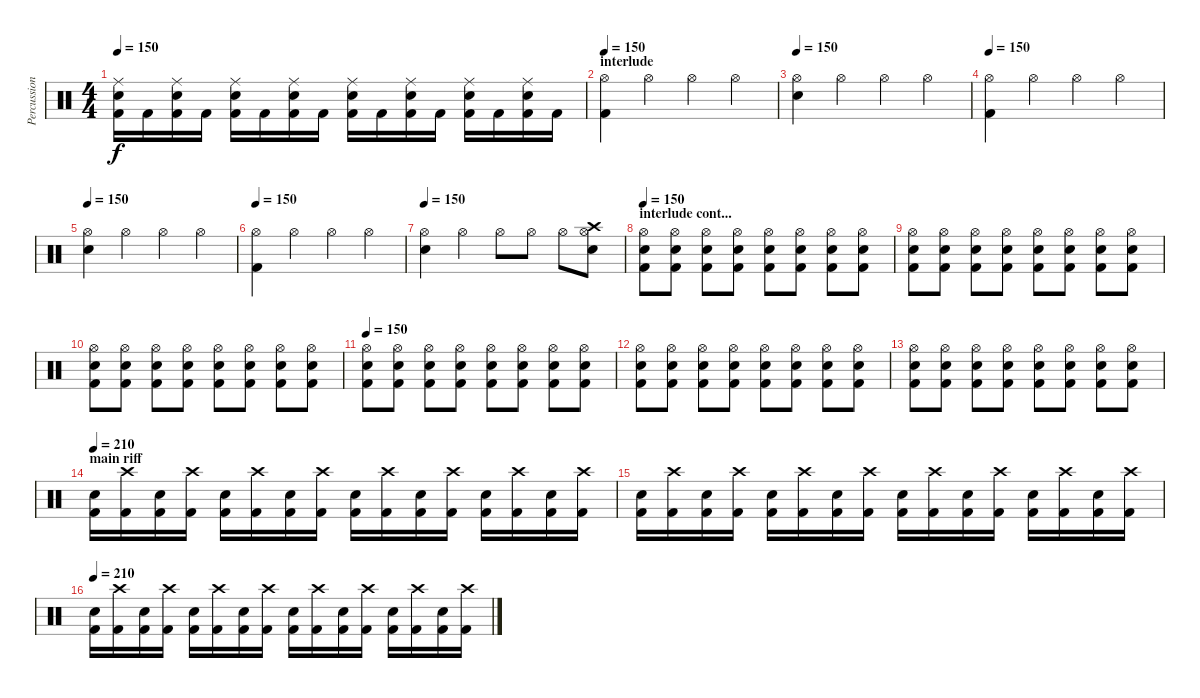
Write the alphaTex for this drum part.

\track ("Percussion" "Percussion") {instrument percussion}
\staff {score}
\articulation defaults
\ts (4 4)
\tempo 150
\clef neutral
\ks c
("Ride (middle)" "Snare (hit) 2" "Kick (hit) 2").16{dy f} "Kick (hit) 2".16 ("Ride (middle)" "Snare (hit) 2" "Kick (hit) 2").16 "Kick (hit) 2".16 ("Ride (middle)" "Snare (hit) 2" "Kick (hit) 2").16 "Kick (hit) 2".16 ("Ride (middle)" "Snare (hit) 2" "Kick (hit) 2").16 "Kick (hit) 2".16 ("Ride (middle)" "Snare (hit) 2" "Kick (hit) 2").16 "Kick (hit) 2".16 ("Ride (middle)" "Snare (hit) 2" "Kick (hit) 2").16 "Kick (hit) 2".16 ("Ride (middle)" "Snare (hit) 2" "Kick (hit) 2").16 "Kick (hit) 2".16 ("Ride (middle)" "Snare (hit) 2" "Kick (hit) 2").16 "Kick (hit) 2".16 |
\section ("" "interlude")
\tempo 150
("Hi-Hat (open)" "Kick (hit) 2").4 "Hi-Hat (open)".4 "Hi-Hat (open)".4 "Hi-Hat (open)".4 |
\tempo 150
("Hi-Hat (open)" "Snare (hit) 2").4 "Hi-Hat (open)".4 "Hi-Hat (open)".4 "Hi-Hat (open)".4 |
\tempo 150
("Hi-Hat (open)" "Kick (hit) 2").4 "Hi-Hat (open)".4 "Hi-Hat (open)".4 "Hi-Hat (open)".4 |
\tempo 150
("Hi-Hat (open)" "Snare (hit) 2").4 "Hi-Hat (open)".4 "Hi-Hat (open)".4 "Hi-Hat (open)".4 |
\tempo 150
("Hi-Hat (open)" "Kick (hit) 2").4 "Hi-Hat (open)".4 "Hi-Hat (open)".4 "Hi-Hat (open)".4 |
\tempo 150
("Hi-Hat (open)" "Snare (hit) 2").4 "Hi-Hat (open)".4 "Hi-Hat (open)".8 "Hi-Hat (open)".8 "Hi-Hat (open)".8 ("Crash high (hit)" "Hi-Hat (open)" "Snare (hit) 2").8 |
\section ("" "interlude cont...")
\tempo 150
("Hi-Hat (open)" "Snare (hit) 2" "Kick (hit) 2").8 ("Hi-Hat (open)" "Snare (hit) 2" "Kick (hit) 2").8 ("Hi-Hat (open)" "Snare (hit) 2" "Kick (hit) 2").8 ("Hi-Hat (open)" "Snare (hit) 2" "Kick (hit) 2").8 ("Hi-Hat (open)" "Snare (hit) 2" "Kick (hit) 2").8 ("Hi-Hat (open)" "Snare (hit) 2" "Kick (hit) 2").8 ("Hi-Hat (open)" "Snare (hit) 2" "Kick (hit) 2").8 ("Hi-Hat (open)" "Snare (hit) 2" "Kick (hit) 2").8 |
("Hi-Hat (open)" "Snare (hit) 2" "Kick (hit) 2").8 ("Hi-Hat (open)" "Snare (hit) 2" "Kick (hit) 2").8 ("Hi-Hat (open)" "Snare (hit) 2" "Kick (hit) 2").8 ("Hi-Hat (open)" "Snare (hit) 2" "Kick (hit) 2").8 ("Hi-Hat (open)" "Snare (hit) 2" "Kick (hit) 2").8 ("Hi-Hat (open)" "Snare (hit) 2" "Kick (hit) 2").8 ("Hi-Hat (open)" "Snare (hit) 2" "Kick (hit) 2").8 ("Hi-Hat (open)" "Snare (hit) 2" "Kick (hit) 2").8 |
("Hi-Hat (open)" "Snare (hit) 2" "Kick (hit) 2").8 ("Hi-Hat (open)" "Snare (hit) 2" "Kick (hit) 2").8 ("Hi-Hat (open)" "Snare (hit) 2" "Kick (hit) 2").8 ("Hi-Hat (open)" "Snare (hit) 2" "Kick (hit) 2").8 ("Hi-Hat (open)" "Snare (hit) 2" "Kick (hit) 2").8 ("Hi-Hat (open)" "Snare (hit) 2" "Kick (hit) 2").8 ("Hi-Hat (open)" "Snare (hit) 2" "Kick (hit) 2").8 ("Hi-Hat (open)" "Snare (hit) 2" "Kick (hit) 2").8 |
\tempo 150
("Hi-Hat (open)" "Snare (hit) 2" "Kick (hit) 2").8 ("Hi-Hat (open)" "Snare (hit) 2" "Kick (hit) 2").8 ("Hi-Hat (open)" "Snare (hit) 2" "Kick (hit) 2").8 ("Hi-Hat (open)" "Snare (hit) 2" "Kick (hit) 2").8 ("Hi-Hat (open)" "Snare (hit) 2" "Kick (hit) 2").8 ("Hi-Hat (open)" "Snare (hit) 2" "Kick (hit) 2").8 ("Hi-Hat (open)" "Snare (hit) 2" "Kick (hit) 2").8 ("Hi-Hat (open)" "Snare (hit) 2" "Kick (hit) 2").8 |
("Hi-Hat (open)" "Snare (hit) 2" "Kick (hit) 2").8 ("Hi-Hat (open)" "Snare (hit) 2" "Kick (hit) 2").8 ("Hi-Hat (open)" "Snare (hit) 2" "Kick (hit) 2").8 ("Hi-Hat (open)" "Snare (hit) 2" "Kick (hit) 2").8 ("Hi-Hat (open)" "Snare (hit) 2" "Kick (hit) 2").8 ("Hi-Hat (open)" "Snare (hit) 2" "Kick (hit) 2").8 ("Hi-Hat (open)" "Snare (hit) 2" "Kick (hit) 2").8 ("Hi-Hat (open)" "Snare (hit) 2" "Kick (hit) 2").8 |
("Hi-Hat (open)" "Snare (hit) 2" "Kick (hit) 2").8 ("Hi-Hat (open)" "Snare (hit) 2" "Kick (hit) 2").8 ("Hi-Hat (open)" "Snare (hit) 2" "Kick (hit) 2").8 ("Hi-Hat (open)" "Snare (hit) 2" "Kick (hit) 2").8 ("Hi-Hat (open)" "Snare (hit) 2" "Kick (hit) 2").8 ("Hi-Hat (open)" "Snare (hit) 2" "Kick (hit) 2").8 ("Hi-Hat (open)" "Snare (hit) 2" "Kick (hit) 2").8 ("Hi-Hat (open)" "Snare (hit) 2" "Kick (hit) 2").8 |
\section ("" "main riff")
\tempo 210
("Snare (hit) 2" "Kick (hit) 2").16 ("Crash high (hit)" "Kick (hit) 2").16 ("Snare (hit) 2" "Kick (hit) 2").16 ("Crash high (hit)" "Kick (hit) 2").16 ("Snare (hit) 2" "Kick (hit) 2").16 ("Crash high (hit)" "Kick (hit) 2").16 ("Snare (hit) 2" "Kick (hit) 2").16 ("Crash high (hit)" "Kick (hit) 2").16 ("Snare (hit) 2" "Kick (hit) 2").16 ("Crash high (hit)" "Kick (hit) 2").16 ("Snare (hit) 2" "Kick (hit) 2").16 ("Crash high (hit)" "Kick (hit) 2").16 ("Snare (hit) 2" "Kick (hit) 2").16 ("Crash high (hit)" "Kick (hit) 2").16 ("Snare (hit) 2" "Kick (hit) 2").16 ("Crash high (hit)" "Kick (hit) 2").16 |
("Snare (hit) 2" "Kick (hit) 2").16 ("Crash high (hit)" "Kick (hit) 2").16 ("Snare (hit) 2" "Kick (hit) 2").16 ("Crash high (hit)" "Kick (hit) 2").16 ("Snare (hit) 2" "Kick (hit) 2").16 ("Crash high (hit)" "Kick (hit) 2").16 ("Snare (hit) 2" "Kick (hit) 2").16 ("Crash high (hit)" "Kick (hit) 2").16 ("Snare (hit) 2" "Kick (hit) 2").16 ("Crash high (hit)" "Kick (hit) 2").16 ("Snare (hit) 2" "Kick (hit) 2").16 ("Crash high (hit)" "Kick (hit) 2").16 ("Snare (hit) 2" "Kick (hit) 2").16 ("Crash high (hit)" "Kick (hit) 2").16 ("Snare (hit) 2" "Kick (hit) 2").16 ("Crash high (hit)" "Kick (hit) 2").16 |
\tempo 210
("Snare (hit) 2" "Kick (hit) 2").16 ("Crash high (hit)" "Kick (hit) 2").16 ("Snare (hit) 2" "Kick (hit) 2").16 ("Crash high (hit)" "Kick (hit) 2").16 ("Snare (hit) 2" "Kick (hit) 2").16 ("Crash high (hit)" "Kick (hit) 2").16 ("Snare (hit) 2" "Kick (hit) 2").16 ("Crash high (hit)" "Kick (hit) 2").16 ("Snare (hit) 2" "Kick (hit) 2").16 ("Crash high (hit)" "Kick (hit) 2").16 ("Snare (hit) 2" "Kick (hit) 2").16 ("Crash high (hit)" "Kick (hit) 2").16 ("Snare (hit) 2" "Kick (hit) 2").16 ("Crash high (hit)" "Kick (hit) 2").16 ("Snare (hit) 2" "Kick (hit) 2").16 ("Crash high (hit)" "Kick (hit) 2").16
